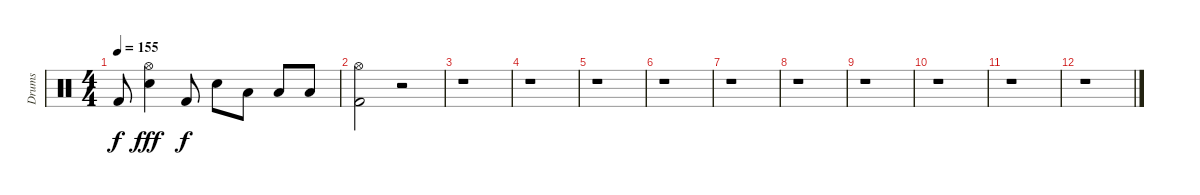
\track ("Drums" "Drums") {instrument percussion}
\staff {score}
\articulation defaults
\ts (4 4)
\tempo 155
\clef neutral
\ks c "Kick (hit) 2".8{dy f}
("Electric Snare (hit)" "Hi-Hat (open)").4{dy fff} "Kick (hit) 2".8{dy f} "Electric Snare (hit)".8 "Low Tom (hit)".8 "Low Tom (hit)".8 "Low Floor Tom (hit)".8 |
("Kick (hit) 2" "Hi-Hat (open)").2 r.2 |
r.1 |
r.1 |
r.1 |
r.1 |
r.1 |
r.1 |
r.1 |
r.1 |
r.1 |
r.1
